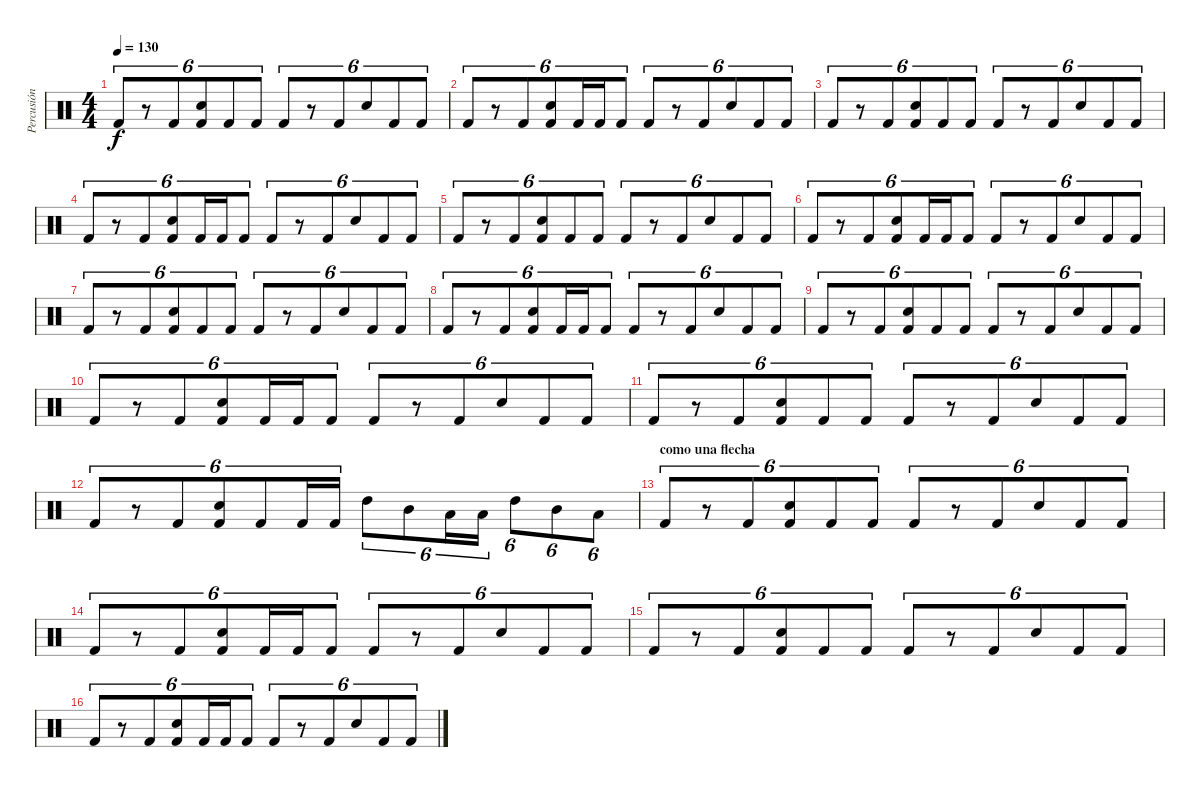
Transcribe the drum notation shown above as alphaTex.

\track ("Percusión" "Percusión") {instrument percussion}
\staff {score}
\articulation defaults
\ts (4 4)
\tempo 130
\clef neutral
\ks c "Kick (hit) 2".8{tu (6 4) dy f}
r.8{tu (6 4)} "Kick (hit) 2".8{tu (6 4)} ("Electric Snare (hit)" "Kick (hit) 2").8{tu (6 4)} "Kick (hit) 2".8{tu (6 4)} "Kick (hit) 2".8{tu (6 4)} "Kick (hit) 2".8{tu (6 4)} r.8{tu (6 4)} "Kick (hit) 2".8{tu (6 4)} "Electric Snare (hit)".8{tu (6 4)} "Kick (hit) 2".8{tu (6 4)} "Kick (hit) 2".8{tu (6 4)} |
"Kick (hit) 2".8{tu (6 4)} r.8{tu (6 4)} "Kick (hit) 2".8{tu (6 4)} ("Electric Snare (hit)" "Kick (hit) 2").8{tu (6 4)} "Kick (hit) 2".16{tu (6 4)} "Kick (hit) 2".16{tu (6 4)} "Kick (hit) 2".8{tu (6 4)} "Kick (hit) 2".8{tu (6 4)} r.8{tu (6 4)} "Kick (hit) 2".8{tu (6 4)} "Electric Snare (hit)".8{tu (6 4)} "Kick (hit) 2".8{tu (6 4)} "Kick (hit) 2".8{tu (6 4)} |
"Kick (hit) 2".8{tu (6 4)} r.8{tu (6 4)} "Kick (hit) 2".8{tu (6 4)} ("Electric Snare (hit)" "Kick (hit) 2").8{tu (6 4)} "Kick (hit) 2".8{tu (6 4)} "Kick (hit) 2".8{tu (6 4)} "Kick (hit) 2".8{tu (6 4)} r.8{tu (6 4)} "Kick (hit) 2".8{tu (6 4)} "Electric Snare (hit)".8{tu (6 4)} "Kick (hit) 2".8{tu (6 4)} "Kick (hit) 2".8{tu (6 4)} |
"Kick (hit) 2".8{tu (6 4)} r.8{tu (6 4)} "Kick (hit) 2".8{tu (6 4)} ("Electric Snare (hit)" "Kick (hit) 2").8{tu (6 4)} "Kick (hit) 2".16{tu (6 4)} "Kick (hit) 2".16{tu (6 4)} "Kick (hit) 2".8{tu (6 4)} "Kick (hit) 2".8{tu (6 4)} r.8{tu (6 4)} "Kick (hit) 2".8{tu (6 4)} "Electric Snare (hit)".8{tu (6 4)} "Kick (hit) 2".8{tu (6 4)} "Kick (hit) 2".8{tu (6 4)} |
"Kick (hit) 2".8{tu (6 4)} r.8{tu (6 4)} "Kick (hit) 2".8{tu (6 4)} ("Electric Snare (hit)" "Kick (hit) 2").8{tu (6 4)} "Kick (hit) 2".8{tu (6 4)} "Kick (hit) 2".8{tu (6 4)} "Kick (hit) 2".8{tu (6 4)} r.8{tu (6 4)} "Kick (hit) 2".8{tu (6 4)} "Electric Snare (hit)".8{tu (6 4)} "Kick (hit) 2".8{tu (6 4)} "Kick (hit) 2".8{tu (6 4)} |
"Kick (hit) 2".8{tu (6 4)} r.8{tu (6 4)} "Kick (hit) 2".8{tu (6 4)} ("Electric Snare (hit)" "Kick (hit) 2").8{tu (6 4)} "Kick (hit) 2".16{tu (6 4)} "Kick (hit) 2".16{tu (6 4)} "Kick (hit) 2".8{tu (6 4)} "Kick (hit) 2".8{tu (6 4)} r.8{tu (6 4)} "Kick (hit) 2".8{tu (6 4)} "Electric Snare (hit)".8{tu (6 4)} "Kick (hit) 2".8{tu (6 4)} "Kick (hit) 2".8{tu (6 4)} |
"Kick (hit) 2".8{tu (6 4)} r.8{tu (6 4)} "Kick (hit) 2".8{tu (6 4)} ("Electric Snare (hit)" "Kick (hit) 2").8{tu (6 4)} "Kick (hit) 2".8{tu (6 4)} "Kick (hit) 2".8{tu (6 4)} "Kick (hit) 2".8{tu (6 4)} r.8{tu (6 4)} "Kick (hit) 2".8{tu (6 4)} "Electric Snare (hit)".8{tu (6 4)} "Kick (hit) 2".8{tu (6 4)} "Kick (hit) 2".8{tu (6 4)} |
"Kick (hit) 2".8{tu (6 4)} r.8{tu (6 4)} "Kick (hit) 2".8{tu (6 4)} ("Electric Snare (hit)" "Kick (hit) 2").8{tu (6 4)} "Kick (hit) 2".16{tu (6 4)} "Kick (hit) 2".16{tu (6 4)} "Kick (hit) 2".8{tu (6 4)} "Kick (hit) 2".8{tu (6 4)} r.8{tu (6 4)} "Kick (hit) 2".8{tu (6 4)} "Electric Snare (hit)".8{tu (6 4)} "Kick (hit) 2".8{tu (6 4)} "Kick (hit) 2".8{tu (6 4)} |
"Kick (hit) 2".8{tu (6 4)} r.8{tu (6 4)} "Kick (hit) 2".8{tu (6 4)} ("Electric Snare (hit)" "Kick (hit) 2").8{tu (6 4)} "Kick (hit) 2".8{tu (6 4)} "Kick (hit) 2".8{tu (6 4)} "Kick (hit) 2".8{tu (6 4)} r.8{tu (6 4)} "Kick (hit) 2".8{tu (6 4)} "Electric Snare (hit)".8{tu (6 4)} "Kick (hit) 2".8{tu (6 4)} "Kick (hit) 2".8{tu (6 4)} |
"Kick (hit) 2".8{tu (6 4)} r.8{tu (6 4)} "Kick (hit) 2".8{tu (6 4)} ("Electric Snare (hit)" "Kick (hit) 2").8{tu (6 4)} "Kick (hit) 2".16{tu (6 4)} "Kick (hit) 2".16{tu (6 4)} "Kick (hit) 2".8{tu (6 4)} "Kick (hit) 2".8{tu (6 4)} r.8{tu (6 4)} "Kick (hit) 2".8{tu (6 4)} "Electric Snare (hit)".8{tu (6 4)} "Kick (hit) 2".8{tu (6 4)} "Kick (hit) 2".8{tu (6 4)} |
"Kick (hit) 2".8{tu (6 4)} r.8{tu (6 4)} "Kick (hit) 2".8{tu (6 4)} ("Electric Snare (hit)" "Kick (hit) 2").8{tu (6 4)} "Kick (hit) 2".8{tu (6 4)} "Kick (hit) 2".8{tu (6 4)} "Kick (hit) 2".8{tu (6 4)} r.8{tu (6 4)} "Kick (hit) 2".8{tu (6 4)} "Electric Snare (hit)".8{tu (6 4)} "Kick (hit) 2".8{tu (6 4)} "Kick (hit) 2".8{tu (6 4)} |
"Kick (hit) 2".8{tu (6 4)} r.8{tu (6 4)} "Kick (hit) 2".8{tu (6 4)} ("Electric Snare (hit)" "Kick (hit) 2").8{tu (6 4)} "Kick (hit) 2".8{tu (6 4)} "Kick (hit) 2".16{tu (6 4)} "Kick (hit) 2".16{tu (6 4)} "High Tom (hit)".8{tu (6 4)} "Mid Tom (hit)".8{tu (6 4)} "Low Tom (hit)".16{tu (6 4)} "Low Tom (hit)".16{tu (6 4)} "High Tom (hit)".8{tu (6 4)} "Mid Tom (hit)".8{tu (6 4)} "Low Tom (hit)".8{tu (6 4)} |
\section ("" "como una flecha")
"Kick (hit) 2".8{tu (6 4)} r.8{tu (6 4)} "Kick (hit) 2".8{tu (6 4)} ("Electric Snare (hit)" "Kick (hit) 2").8{tu (6 4)} "Kick (hit) 2".8{tu (6 4)} "Kick (hit) 2".8{tu (6 4)} "Kick (hit) 2".8{tu (6 4)} r.8{tu (6 4)} "Kick (hit) 2".8{tu (6 4)} "Electric Snare (hit)".8{tu (6 4)} "Kick (hit) 2".8{tu (6 4)} "Kick (hit) 2".8{tu (6 4)} |
"Kick (hit) 2".8{tu (6 4)} r.8{tu (6 4)} "Kick (hit) 2".8{tu (6 4)} ("Electric Snare (hit)" "Kick (hit) 2").8{tu (6 4)} "Kick (hit) 2".16{tu (6 4)} "Kick (hit) 2".16{tu (6 4)} "Kick (hit) 2".8{tu (6 4)} "Kick (hit) 2".8{tu (6 4)} r.8{tu (6 4)} "Kick (hit) 2".8{tu (6 4)} "Electric Snare (hit)".8{tu (6 4)} "Kick (hit) 2".8{tu (6 4)} "Kick (hit) 2".8{tu (6 4)} |
"Kick (hit) 2".8{tu (6 4)} r.8{tu (6 4)} "Kick (hit) 2".8{tu (6 4)} ("Electric Snare (hit)" "Kick (hit) 2").8{tu (6 4)} "Kick (hit) 2".8{tu (6 4)} "Kick (hit) 2".8{tu (6 4)} "Kick (hit) 2".8{tu (6 4)} r.8{tu (6 4)} "Kick (hit) 2".8{tu (6 4)} "Electric Snare (hit)".8{tu (6 4)} "Kick (hit) 2".8{tu (6 4)} "Kick (hit) 2".8{tu (6 4)} |
"Kick (hit) 2".8{tu (6 4)} r.8{tu (6 4)} "Kick (hit) 2".8{tu (6 4)} ("Electric Snare (hit)" "Kick (hit) 2").8{tu (6 4)} "Kick (hit) 2".16{tu (6 4)} "Kick (hit) 2".16{tu (6 4)} "Kick (hit) 2".8{tu (6 4)} "Kick (hit) 2".8{tu (6 4)} r.8{tu (6 4)} "Kick (hit) 2".8{tu (6 4)} "Electric Snare (hit)".8{tu (6 4)} "Kick (hit) 2".8{tu (6 4)} "Kick (hit) 2".8{tu (6 4)}
